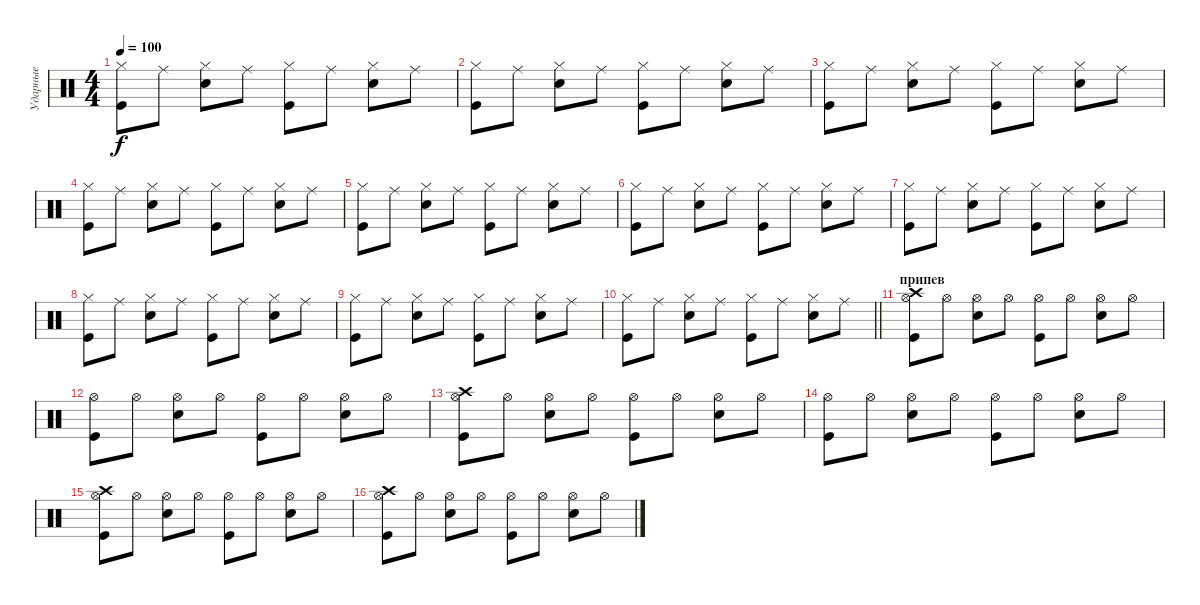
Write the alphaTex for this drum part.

\track ("Ударные" "Ударные") {instrument percussion}
\staff {score}
\articulation defaults
\ts (4 4)
\tempo 100
\clef neutral
\ks c
("Hi-Hat (closed)" "Kick (hit)").8{dy f} "Ride (middle)".8 ("Hi-Hat (closed)" "Snare (hit) 2").8 "Ride (middle)".8 ("Hi-Hat (closed)" "Kick (hit)").8 "Ride (middle)".8 ("Hi-Hat (closed)" "Snare (hit) 2").8 "Ride (middle)".8 |
("Hi-Hat (closed)" "Kick (hit)").8 "Ride (middle)".8 ("Hi-Hat (closed)" "Snare (hit) 2").8 "Ride (middle)".8 ("Hi-Hat (closed)" "Kick (hit)").8 "Ride (middle)".8 ("Hi-Hat (closed)" "Snare (hit) 2").8 "Ride (middle)".8 |
("Hi-Hat (closed)" "Kick (hit)").8 "Ride (middle)".8 ("Hi-Hat (closed)" "Snare (hit) 2").8 "Ride (middle)".8 ("Hi-Hat (closed)" "Kick (hit)").8 "Ride (middle)".8 ("Hi-Hat (closed)" "Snare (hit) 2").8 "Ride (middle)".8 |
("Hi-Hat (closed)" "Kick (hit)").8 "Ride (middle)".8 ("Hi-Hat (closed)" "Snare (hit) 2").8 "Ride (middle)".8 ("Hi-Hat (closed)" "Kick (hit)").8 "Ride (middle)".8 ("Hi-Hat (closed)" "Snare (hit) 2").8 "Ride (middle)".8 |
("Hi-Hat (closed)" "Kick (hit)").8 "Ride (middle)".8 ("Hi-Hat (closed)" "Snare (hit) 2").8 "Ride (middle)".8 ("Hi-Hat (closed)" "Kick (hit)").8 "Ride (middle)".8 ("Hi-Hat (closed)" "Snare (hit) 2").8 "Ride (middle)".8 |
("Hi-Hat (closed)" "Kick (hit)").8 "Ride (middle)".8 ("Hi-Hat (closed)" "Snare (hit) 2").8 "Ride (middle)".8 ("Hi-Hat (closed)" "Kick (hit)").8 "Ride (middle)".8 ("Hi-Hat (closed)" "Snare (hit) 2").8 "Ride (middle)".8 |
("Hi-Hat (closed)" "Kick (hit)").8 "Ride (middle)".8 ("Hi-Hat (closed)" "Snare (hit) 2").8 "Ride (middle)".8 ("Hi-Hat (closed)" "Kick (hit)").8 "Ride (middle)".8 ("Hi-Hat (closed)" "Snare (hit) 2").8 "Ride (middle)".8 |
("Hi-Hat (closed)" "Kick (hit)").8 "Ride (middle)".8 ("Hi-Hat (closed)" "Snare (hit) 2").8 "Ride (middle)".8 ("Hi-Hat (closed)" "Kick (hit)").8 "Ride (middle)".8 ("Hi-Hat (closed)" "Snare (hit) 2").8 "Ride (middle)".8 |
("Hi-Hat (closed)" "Kick (hit)").8 "Ride (middle)".8 ("Hi-Hat (closed)" "Snare (hit) 2").8 "Ride (middle)".8 ("Hi-Hat (closed)" "Kick (hit)").8 "Ride (middle)".8 ("Hi-Hat (closed)" "Snare (hit) 2").8 "Ride (middle)".8 |
\barLineRight lightlight
("Hi-Hat (closed)" "Kick (hit)").8 "Ride (middle)".8 ("Hi-Hat (closed)" "Snare (hit) 2").8 "Ride (middle)".8 ("Hi-Hat (closed)" "Kick (hit)").8 "Ride (middle)".8 ("Hi-Hat (closed)" "Snare (hit) 2").8 "Ride (middle)".8 |
\section ("" "припев")
("Hi-Hat (open)" "Kick (hit)" "Crash high (hit)").8 "Hi-Hat (open)".8 ("Hi-Hat (open)" "Snare (hit) 2").8 "Hi-Hat (open)".8 ("Hi-Hat (open)" "Kick (hit)").8 "Hi-Hat (open)".8 ("Hi-Hat (open)" "Snare (hit) 2").8 "Hi-Hat (open)".8 |
("Hi-Hat (open)" "Kick (hit)").8 "Hi-Hat (open)".8 ("Hi-Hat (open)" "Snare (hit) 2").8 "Hi-Hat (open)".8 ("Hi-Hat (open)" "Kick (hit)").8 "Hi-Hat (open)".8 ("Hi-Hat (open)" "Snare (hit) 2").8 "Hi-Hat (open)".8 |
("Hi-Hat (open)" "Kick (hit)" "Crash high (hit)").8 "Hi-Hat (open)".8 ("Hi-Hat (open)" "Snare (hit) 2").8 "Hi-Hat (open)".8 ("Hi-Hat (open)" "Kick (hit)").8 "Hi-Hat (open)".8 ("Hi-Hat (open)" "Snare (hit) 2").8 "Hi-Hat (open)".8 |
("Hi-Hat (open)" "Kick (hit)").8 "Hi-Hat (open)".8 ("Hi-Hat (open)" "Snare (hit) 2").8 "Hi-Hat (open)".8 ("Hi-Hat (open)" "Kick (hit)").8 "Hi-Hat (open)".8 ("Hi-Hat (open)" "Snare (hit) 2").8 "Hi-Hat (open)".8 |
("Hi-Hat (open)" "Kick (hit)" "Crash high (hit)").8 "Hi-Hat (open)".8 ("Hi-Hat (open)" "Snare (hit) 2").8 "Hi-Hat (open)".8 ("Hi-Hat (open)" "Kick (hit)").8 "Hi-Hat (open)".8 ("Hi-Hat (open)" "Snare (hit) 2").8 "Hi-Hat (open)".8 |
("Hi-Hat (open)" "Kick (hit)" "Crash high (hit)").8 "Hi-Hat (open)".8 ("Hi-Hat (open)" "Snare (hit) 2").8 "Hi-Hat (open)".8 ("Hi-Hat (open)" "Kick (hit)").8 "Hi-Hat (open)".8 ("Hi-Hat (open)" "Snare (hit) 2").8 "Hi-Hat (open)".8
